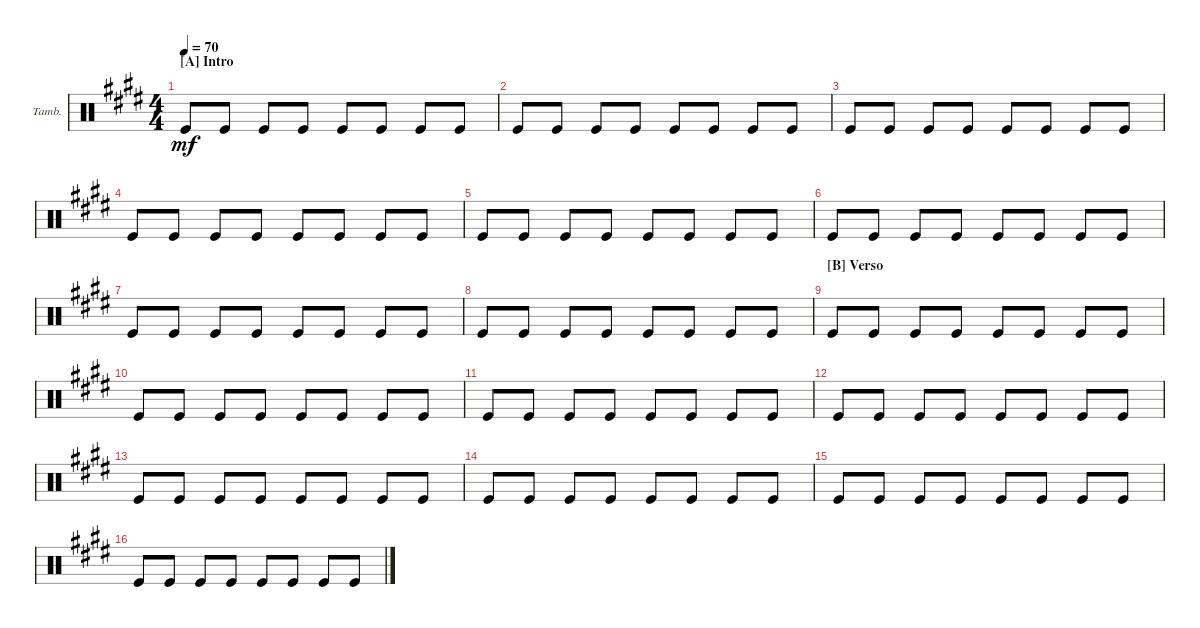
\defaultSystemsLayout 4
\bracketExtendMode groupsimilarinstruments
\firstSystemTrackNameOrientation horizontal
\otherSystemsTrackNameOrientation horizontal
\track ("Tambourine" "Tamb.") {instrument percussion}
\staff {score}
\articulation defaults
\ts (4 4)
\section ("A" "Intro")
\tempo 70
\clef neutral
\scale
0.5
\ks e "Kick (hit)".8{dy mf} "Kick (hit)".8 "Kick (hit)".8 "Kick (hit)".8 "Kick (hit)".8 "Kick (hit)".8 "Kick (hit)".8 "Kick (hit)".8
|
\scale
0.5 "Kick (hit)".8 "Kick (hit)".8 "Kick (hit)".8 "Kick (hit)".8 "Kick (hit)".8 "Kick (hit)".8 "Kick (hit)".8 "Kick (hit)".8 |
\scale
0.5 "Kick (hit)".8 "Kick (hit)".8 "Kick (hit)".8 "Kick (hit)".8 "Kick (hit)".8 "Kick (hit)".8 "Kick (hit)".8 "Kick (hit)".8 |
\scale
0.5 "Kick (hit)".8 "Kick (hit)".8 "Kick (hit)".8 "Kick (hit)".8 "Kick (hit)".8 "Kick (hit)".8 "Kick (hit)".8 "Kick (hit)".8 |
\scale
0.5 "Kick (hit)".8 "Kick (hit)".8 "Kick (hit)".8 "Kick (hit)".8 "Kick (hit)".8 "Kick (hit)".8 "Kick (hit)".8 "Kick (hit)".8 |
\scale
0.5 "Kick (hit)".8 "Kick (hit)".8 "Kick (hit)".8 "Kick (hit)".8 "Kick (hit)".8 "Kick (hit)".8 "Kick (hit)".8 "Kick (hit)".8 |
\scale
0.5 "Kick (hit)".8 "Kick (hit)".8 "Kick (hit)".8 "Kick (hit)".8 "Kick (hit)".8 "Kick (hit)".8 "Kick (hit)".8 "Kick (hit)".8 |
\scale
0.5 "Kick (hit)".8 "Kick (hit)".8 "Kick (hit)".8 "Kick (hit)".8 "Kick (hit)".8 "Kick (hit)".8 "Kick (hit)".8 "Kick (hit)".8 |
\section ("B" "Verso")
\scale
0.5 "Kick (hit)".8 "Kick (hit)".8 "Kick (hit)".8 "Kick (hit)".8 "Kick (hit)".8 "Kick (hit)".8 "Kick (hit)".8 "Kick (hit)".8 |
\scale
0.5 "Kick (hit)".8 "Kick (hit)".8 "Kick (hit)".8 "Kick (hit)".8 "Kick (hit)".8 "Kick (hit)".8 "Kick (hit)".8 "Kick (hit)".8 |
\scale
0.5 "Kick (hit)".8 "Kick (hit)".8 "Kick (hit)".8 "Kick (hit)".8 "Kick (hit)".8 "Kick (hit)".8 "Kick (hit)".8 "Kick (hit)".8 |
\scale
0.5 "Kick (hit)".8 "Kick (hit)".8 "Kick (hit)".8 "Kick (hit)".8 "Kick (hit)".8 "Kick (hit)".8 "Kick (hit)".8 "Kick (hit)".8 |
\scale
0.5 "Kick (hit)".8 "Kick (hit)".8 "Kick (hit)".8 "Kick (hit)".8 "Kick (hit)".8 "Kick (hit)".8 "Kick (hit)".8 "Kick (hit)".8 |
\scale
0.5 "Kick (hit)".8 "Kick (hit)".8 "Kick (hit)".8 "Kick (hit)".8 "Kick (hit)".8 "Kick (hit)".8 "Kick (hit)".8 "Kick (hit)".8 |
\scale
0.5 "Kick (hit)".8 "Kick (hit)".8 "Kick (hit)".8 "Kick (hit)".8 "Kick (hit)".8 "Kick (hit)".8 "Kick (hit)".8 "Kick (hit)".8 |
\scale
0.5 "Kick (hit)".8 "Kick (hit)".8 "Kick (hit)".8 "Kick (hit)".8 "Kick (hit)".8 "Kick (hit)".8 "Kick (hit)".8 "Kick (hit)".8
